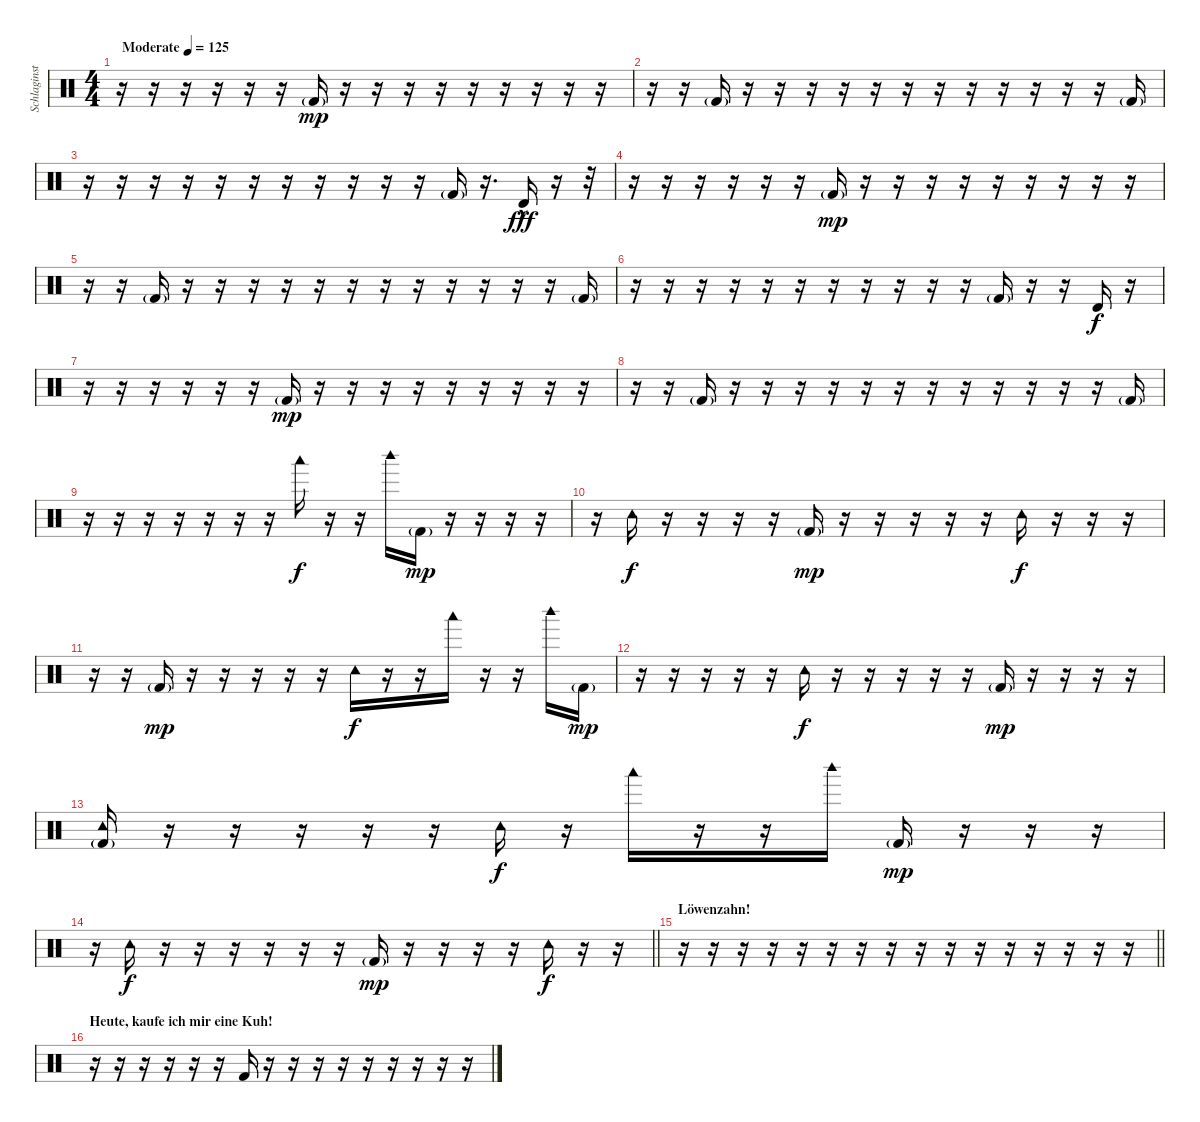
\track ("Schlaginstrumente - Auswahl" "Schlaginst") {instrument percussion}
\staff {score}
\articulation defaults
\ts (4 4)
\tempo (125 "Moderate")
\clef neutral
\ks c
r.16{dy mp} r.16 r.16 r.16 r.16 r.16 "Kick (hit) 2"{g}.16 r.16 r.16 r.16 r.16 r.16 r.16 r.16 r.16 r.16 |
r.16 r.16 "Kick (hit) 2"{g}.16 r.16 r.16 r.16 r.16 r.16 r.16 r.16 r.16 r.16 r.16 r.16 r.16 "Kick (hit) 2"{g}.16 |
r.16 r.16 r.16 r.16 r.16 r.16 r.16 r.16 r.16 r.16 r.16 "Kick (hit) 2"{g}.16 r.16{d} "Timbale high (hit)"{hac}.16{dy fff} r.16 r.32 |
r.16 r.16 r.16 r.16 r.16 r.16 "Kick (hit) 2"{g}.16{dy mp} r.16 r.16 r.16 r.16 r.16 r.16 r.16 r.16 r.16 |
r.16 r.16 "Kick (hit) 2"{g}.16 r.16 r.16 r.16 r.16 r.16 r.16 r.16 r.16 r.16 r.16 r.16 r.16 "Kick (hit) 2"{g}.16 |
r.16 r.16 r.16 r.16 r.16 r.16 r.16 r.16 r.16 r.16 r.16 "Kick (hit) 2"{g}.16 r.16 r.16 "Timbale high (hit)".16{dy f} r.16 |
r.16 r.16 r.16 r.16 r.16 r.16 "Kick (hit) 2"{g}.16{dy mp} r.16 r.16 r.16 r.16 r.16 r.16 r.16 r.16 r.16 |
r.16 r.16 "Kick (hit) 2"{g}.16 r.16 r.16 r.16 r.16 r.16 r.16 r.16 r.16 r.16 r.16 r.16 r.16 "Kick (hit) 2"{g}.16 |
r.16 r.16 r.16 r.16 r.16 r.16 r.16 "Woodblock low (hit)".16{dy f} r.16 r.16 "Woodblock high (hit)".16 "Kick (hit) 2"{g}.16{dy mp} r.16 r.16 r.16 r.16 |
r.16 "Tambourine (hit)".16{dy f} r.16 r.16 r.16 r.16 "Kick (hit) 2"{g}.16{dy mp} r.16 r.16 r.16 r.16 r.16 "Tambourine (hit)".16{dy f} r.16 r.16 r.16 |
r.16 r.16 "Kick (hit) 2"{g}.16{dy mp} r.16 r.16 r.16 r.16 r.16 "Tambourine (hit)".16{dy f} r.16 r.16 "Woodblock low (hit)".16 r.16 r.16 "Woodblock high (hit)".16 "Kick (hit) 2"{g}.16{dy mp} |
r.16 r.16 r.16 r.16 r.16 "Tambourine (hit)".16{dy f} r.16 r.16 r.16 r.16 r.16 "Kick (hit) 2"{g}.16{dy mp} r.16 r.16 r.16 r.16 |
("Tambourine (hit)" "Kick (hit) 2"{g}).16 r.16 r.16 r.16 r.16 r.16 "Tambourine (hit)".16{dy f} r.16 "Woodblock low (hit)".16 r.16 r.16 "Woodblock high (hit)".16 "Kick (hit) 2"{g}.16{dy mp} r.16 r.16 r.16 |
\barLineRight lightlight
r.16 "Tambourine (hit)".16{dy f} r.16 r.16 r.16 r.16 r.16 r.16 "Kick (hit) 2"{g}.16{dy mp} r.16 r.16 r.16 r.16 "Tambourine (hit)".16{dy f} r.16 r.16 |
\section ("" "Löwenzahn!")
\barLineRight lightlight
r.16 r.16 r.16 r.16 r.16 r.16 r.16 r.16 r.16 r.16 r.16 r.16 r.16 r.16 r.16 r.16 |
\section ("" "Heute, kaufe ich mir eine Kuh!")
r.16 r.16 r.16 r.16 r.16 r.16 "Kick (hit) 2".16 r.16 r.16 r.16 r.16 r.16 r.16 r.16 r.16 r.16
